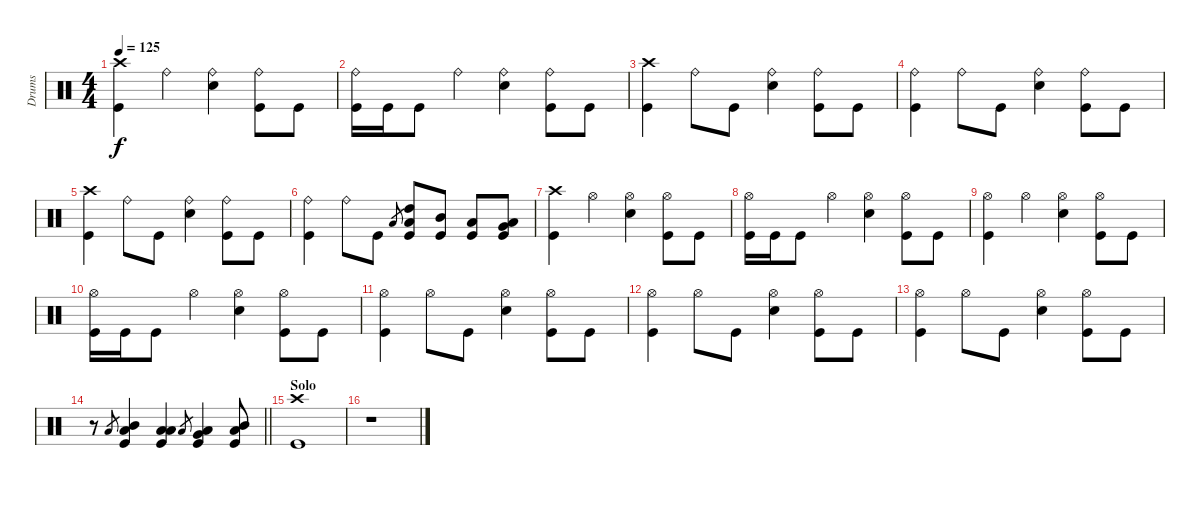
\track ("Drums" "Drums") {instrument percussion}
\staff {score}
\articulation defaults
\ts (4 4)
\tempo 125
\clef neutral
\ks c
("Crash high (hit)" "Kick (hit)").4{dy f} "Ride (bell)".4 ("Ride (bell)" "Electric Snare (hit)").4 ("Ride (bell)" "Kick (hit)").8 "Kick (hit)".8 |
("Ride (bell)" "Kick (hit)").16 "Kick (hit)".16 "Kick (hit)".8 "Ride (bell)".4 ("Ride (bell)" "Electric Snare (hit)").4 ("Ride (bell)" "Kick (hit)").8 "Kick (hit)".8 |
("Crash high (hit)" "Kick (hit)").4 "Ride (bell)".8 "Kick (hit)".8 ("Ride (bell)" "Electric Snare (hit)").4 ("Ride (bell)" "Kick (hit)").8 "Kick (hit)".8 |
("Ride (bell)" "Kick (hit)").4 "Ride (bell)".8 "Kick (hit)".8 ("Ride (bell)" "Electric Snare (hit)").4 ("Ride (bell)" "Kick (hit)").8 "Kick (hit)".8 |
("Crash high (hit)" "Kick (hit)").4 "Ride (bell)".8 "Kick (hit)".8 ("Ride (bell)" "Electric Snare (hit)").4 ("Ride (bell)" "Kick (hit)").8 "Kick (hit)".8 |
("Ride (bell)" "Kick (hit)").4 "Ride (bell)".8 "Kick (hit)".8 "Low Floor Tom (hit)".8{gr} ("High Tom (hit)" "Low Floor Tom (hit)" "Kick (hit)").8 ("Mid Tom (hit)" "Kick (hit)").8 ("Low Tom (hit)" "Kick (hit)").8 ("Very Low Tom (hit)" "Low Floor Tom (hit)" "Kick (hit)").8 |
("Crash high (hit)" "Kick (hit)").4 "Hi-Hat (open)".4 ("Hi-Hat (open)" "Electric Snare (hit)").4 ("Hi-Hat (open)" "Kick (hit)").8 "Kick (hit)".8 |
("Hi-Hat (open)" "Kick (hit)").16 "Kick (hit)".16 "Kick (hit)".8 "Hi-Hat (open)".4 ("Hi-Hat (open)" "Electric Snare (hit)").4 ("Hi-Hat (open)" "Kick (hit)").8 "Kick (hit)".8 |
("Hi-Hat (open)" "Kick (hit)").4 "Hi-Hat (open)".4 ("Hi-Hat (open)" "Electric Snare (hit)").4 ("Hi-Hat (open)" "Kick (hit)").8 "Kick (hit)".8 |
("Hi-Hat (open)" "Kick (hit)").16 "Kick (hit)".16 "Kick (hit)".8 "Hi-Hat (open)".4 ("Hi-Hat (open)" "Electric Snare (hit)").4 ("Hi-Hat (open)" "Kick (hit)").8 "Kick (hit)".8 |
("Hi-Hat (open)" "Kick (hit)").4 "Hi-Hat (open)".8 "Kick (hit)".8 ("Hi-Hat (open)" "Electric Snare (hit)").4 ("Hi-Hat (open)" "Kick (hit)").8 "Kick (hit)".8 |
("Hi-Hat (open)" "Kick (hit)").4 "Hi-Hat (open)".8 "Kick (hit)".8 ("Hi-Hat (open)" "Electric Snare (hit)").4 ("Hi-Hat (open)" "Kick (hit)").8 "Kick (hit)".8 |
("Hi-Hat (open)" "Kick (hit)").4 "Hi-Hat (open)".8 "Kick (hit)".8 ("Hi-Hat (open)" "Electric Snare (hit)").4 ("Hi-Hat (open)" "Kick (hit)").8 "Kick (hit)".8 |
\barLineRight lightlight
r.8 "Low Floor Tom (hit)".8{gr} ("Mid Tom (hit)" "Low Floor Tom (hit)" "Kick (hit)").4 ("Low Tom (hit)" "Low Floor Tom (hit)" "Kick (hit)").4 "Low Floor Tom (hit)".8{gr} ("Very Low Tom (hit)" "Low Floor Tom (hit)" "Kick (hit)").4 ("Mid Tom (hit)" "Low Floor Tom (hit)" "Kick (hit)").8 |
\section ("" "Solo")
("Crash high (hit)" "Kick (hit)").1 |
r.1
